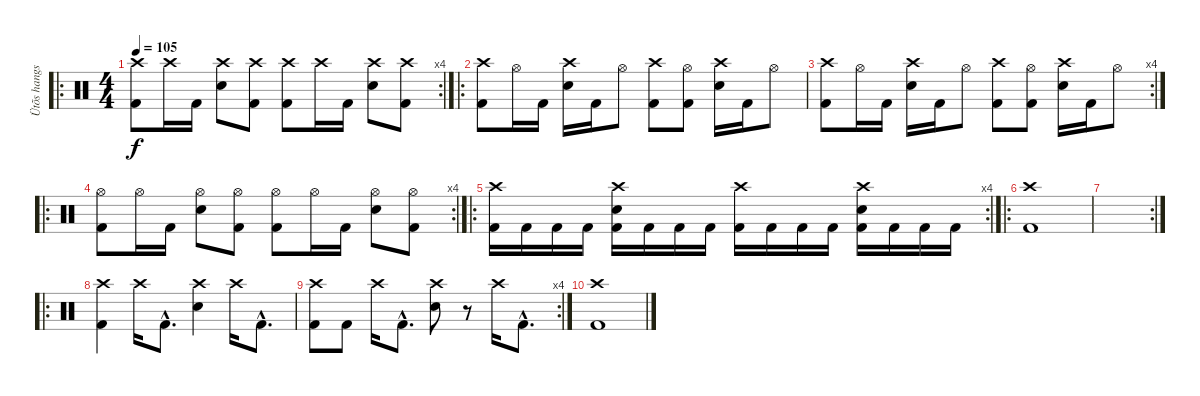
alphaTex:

\track ("Ütõs hangszer" "Ütõs hangs") {instrument percussion}
\staff {score}
\articulation defaults
\ro
\rc 4
\ts (4 4)
\tempo 105
\clef neutral
\ks c
("Crash high (hit)" "Kick (hit) 2").8{dy f} "Crash high (hit)".16 "Kick (hit) 2".16 ("Crash high (hit)" "Snare (hit) 2").8 ("Crash high (hit)" "Kick (hit) 2").8 ("Crash high (hit)" "Kick (hit) 2").8 "Crash high (hit)".16 "Kick (hit) 2".16 ("Crash high (hit)" "Snare (hit) 2").8 ("Crash high (hit)" "Kick (hit) 2").8 |
\ro
("Crash high (hit)" "Kick (hit) 2").8 "Hi-Hat (open)".16 "Kick (hit) 2".16 ("Crash high (hit)" "Snare (hit) 2").16 "Kick (hit) 2".16 "Hi-Hat (open)".8 ("Crash high (hit)" "Kick (hit) 2").8 ("Hi-Hat (open)" "Kick (hit) 2").8 ("Crash high (hit)" "Snare (hit) 2").16 "Kick (hit) 2".16 "Hi-Hat (open)".8 |
\rc 4
("Crash high (hit)" "Kick (hit) 2").8 "Hi-Hat (open)".16 "Kick (hit) 2".16 ("Crash high (hit)" "Snare (hit) 2").16 "Kick (hit) 2".16 "Hi-Hat (open)".8 ("Crash high (hit)" "Kick (hit) 2").8 ("Hi-Hat (open)" "Kick (hit) 2").8 ("Crash high (hit)" "Snare (hit) 2").16 "Kick (hit) 2".16 "Hi-Hat (open)".8 |
\ro
\rc 4
("Hi-Hat (open)" "Kick (hit) 2").8 "Hi-Hat (open)".16 "Kick (hit) 2".16 ("Hi-Hat (open)" "Snare (hit) 2").8 ("Hi-Hat (open)" "Kick (hit) 2").8 ("Hi-Hat (open)" "Kick (hit) 2").8 "Hi-Hat (open)".16 "Kick (hit) 2".16 ("Hi-Hat (open)" "Snare (hit) 2").8 ("Hi-Hat (open)" "Kick (hit) 2").8 |
\ro
\rc 4
("Crash high (hit)" "Kick (hit) 2").16 "Kick (hit) 2".16 "Kick (hit) 2".16 "Kick (hit) 2".16 ("Crash high (hit)" "Snare (hit) 2" "Kick (hit) 2").16 "Kick (hit) 2".16 "Kick (hit) 2".16 "Kick (hit) 2".16 ("Crash high (hit)" "Kick (hit) 2").16 "Kick (hit) 2".16 "Kick (hit) 2".16 "Kick (hit) 2".16 ("Crash high (hit)" "Snare (hit) 2" "Kick (hit) 2").16 "Kick (hit) 2".16 "Kick (hit) 2".16 "Kick (hit) 2".16 |
\ro
("Crash high (hit)" "Kick (hit) 2").1 |
\rc 2
|
\ro
("Crash high (hit)" "Kick (hit) 2").4 "Crash high (hit)".16 "Kick (hit) 2"{hac}.8{d} ("Crash high (hit)" "Snare (hit) 2").4 "Crash high (hit)".16 "Kick (hit) 2"{hac}.8{d} |
\rc 4
("Crash high (hit)" "Kick (hit) 2").8 "Kick (hit) 2".8 "Crash high (hit)".16 "Kick (hit) 2"{hac}.8{d} ("Crash high (hit)" "Snare (hit) 2").8 r.8 "Crash high (hit)".16 "Kick (hit) 2"{hac}.8{d} |
("Crash high (hit)" "Kick (hit) 2").1
